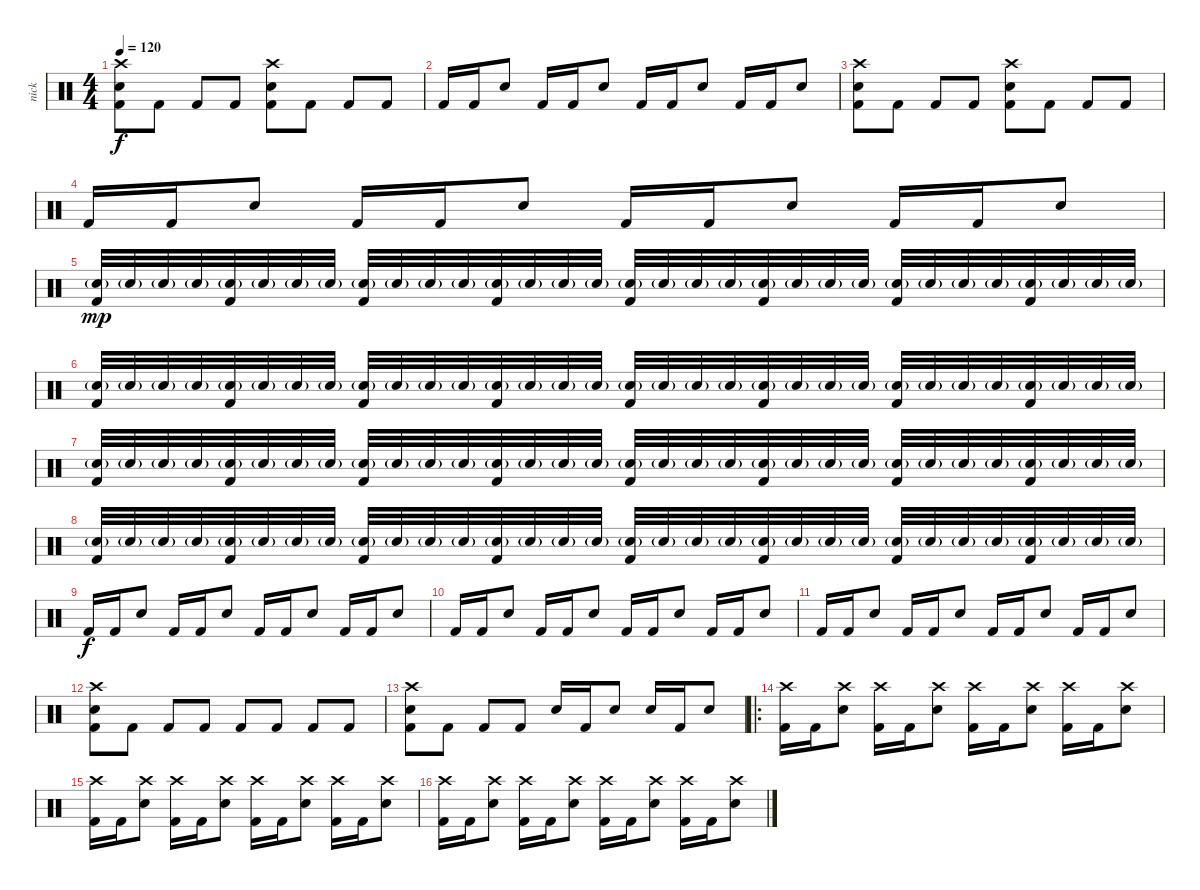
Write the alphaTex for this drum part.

\track ("nick" "nick") {instrument percussion}
\staff {score}
\articulation defaults
\ts (4 4)
\tempo 120
\clef neutral
\ks c
("Kick (hit) 2" "Snare (hit) 2" "Crash high (hit)").8{dy f} "Kick (hit) 2".8 "Kick (hit) 2".8 "Kick (hit) 2".8 ("Kick (hit) 2" "Snare (hit) 2" "Crash high (hit)").8 "Kick (hit) 2".8 "Kick (hit) 2".8 "Kick (hit) 2".8 |
"Kick (hit) 2".16 "Kick (hit) 2".16 "Snare (hit) 2".8 "Kick (hit) 2".16 "Kick (hit) 2".16 "Snare (hit) 2".8 "Kick (hit) 2".16 "Kick (hit) 2".16 "Snare (hit) 2".8 "Kick (hit) 2".16 "Kick (hit) 2".16 "Snare (hit) 2".8 |
("Kick (hit) 2" "Snare (hit) 2" "Crash high (hit)").8 "Kick (hit) 2".8 "Kick (hit) 2".8 "Kick (hit) 2".8 ("Kick (hit) 2" "Snare (hit) 2" "Crash high (hit)").8 "Kick (hit) 2".8 "Kick (hit) 2".8 "Kick (hit) 2".8 |
"Kick (hit) 2".16 "Kick (hit) 2".16 "Snare (hit) 2".8 "Kick (hit) 2".16 "Kick (hit) 2".16 "Snare (hit) 2".8 "Kick (hit) 2".16 "Kick (hit) 2".16 "Snare (hit) 2".8 "Kick (hit) 2".16 "Kick (hit) 2".16 "Snare (hit) 2".8 |
("Snare (hit) 2"{g} "Kick (hit) 2").32{dy mp} "Snare (hit) 2"{g}.32 "Snare (hit) 2"{g}.32 "Snare (hit) 2"{g}.32 ("Snare (hit) 2"{g} "Kick (hit) 2").32 "Snare (hit) 2"{g}.32 "Snare (hit) 2"{g}.32 "Snare (hit) 2"{g}.32 ("Snare (hit) 2"{g} "Kick (hit) 2").32 "Snare (hit) 2"{g}.32 "Snare (hit) 2"{g}.32 "Snare (hit) 2"{g}.32 ("Snare (hit) 2"{g} "Kick (hit) 2").32 "Snare (hit) 2"{g}.32 "Snare (hit) 2"{g}.32 "Snare (hit) 2"{g}.32 ("Snare (hit) 2"{g} "Kick (hit) 2").32 "Snare (hit) 2"{g}.32 "Snare (hit) 2"{g}.32 "Snare (hit) 2"{g}.32 ("Snare (hit) 2"{g} "Kick (hit) 2").32 "Snare (hit) 2"{g}.32 "Snare (hit) 2"{g}.32 "Snare (hit) 2"{g}.32 ("Snare (hit) 2"{g} "Kick (hit) 2").32 "Snare (hit) 2"{g}.32 "Snare (hit) 2"{g}.32 "Snare (hit) 2"{g}.32 ("Snare (hit) 2"{g} "Kick (hit) 2").32 "Snare (hit) 2"{g}.32 "Snare (hit) 2"{g}.32 "Snare (hit) 2"{g}.32 |
("Snare (hit) 2"{g} "Kick (hit) 2").32 "Snare (hit) 2"{g}.32 "Snare (hit) 2"{g}.32 "Snare (hit) 2"{g}.32 ("Snare (hit) 2"{g} "Kick (hit) 2").32 "Snare (hit) 2"{g}.32 "Snare (hit) 2"{g}.32 "Snare (hit) 2"{g}.32 ("Snare (hit) 2"{g} "Kick (hit) 2").32 "Snare (hit) 2"{g}.32 "Snare (hit) 2"{g}.32 "Snare (hit) 2"{g}.32 ("Snare (hit) 2"{g} "Kick (hit) 2").32 "Snare (hit) 2"{g}.32 "Snare (hit) 2"{g}.32 "Snare (hit) 2"{g}.32 ("Snare (hit) 2"{g} "Kick (hit) 2").32 "Snare (hit) 2"{g}.32 "Snare (hit) 2"{g}.32 "Snare (hit) 2"{g}.32 ("Snare (hit) 2"{g} "Kick (hit) 2").32 "Snare (hit) 2"{g}.32 "Snare (hit) 2"{g}.32 "Snare (hit) 2"{g}.32 ("Snare (hit) 2"{g} "Kick (hit) 2").32 "Snare (hit) 2"{g}.32 "Snare (hit) 2"{g}.32 "Snare (hit) 2"{g}.32 ("Snare (hit) 2"{g} "Kick (hit) 2").32 "Snare (hit) 2"{g}.32 "Snare (hit) 2"{g}.32 "Snare (hit) 2"{g}.32 |
("Snare (hit) 2"{g} "Kick (hit) 2").32 "Snare (hit) 2"{g}.32 "Snare (hit) 2"{g}.32 "Snare (hit) 2"{g}.32 ("Snare (hit) 2"{g} "Kick (hit) 2").32 "Snare (hit) 2"{g}.32 "Snare (hit) 2"{g}.32 "Snare (hit) 2"{g}.32 ("Snare (hit) 2"{g} "Kick (hit) 2").32 "Snare (hit) 2"{g}.32 "Snare (hit) 2"{g}.32 "Snare (hit) 2"{g}.32 ("Snare (hit) 2"{g} "Kick (hit) 2").32 "Snare (hit) 2"{g}.32 "Snare (hit) 2"{g}.32 "Snare (hit) 2"{g}.32 ("Snare (hit) 2"{g} "Kick (hit) 2").32 "Snare (hit) 2"{g}.32 "Snare (hit) 2"{g}.32 "Snare (hit) 2"{g}.32 ("Snare (hit) 2"{g} "Kick (hit) 2").32 "Snare (hit) 2"{g}.32 "Snare (hit) 2"{g}.32 "Snare (hit) 2"{g}.32 ("Snare (hit) 2"{g} "Kick (hit) 2").32 "Snare (hit) 2"{g}.32 "Snare (hit) 2"{g}.32 "Snare (hit) 2"{g}.32 ("Snare (hit) 2"{g} "Kick (hit) 2").32 "Snare (hit) 2"{g}.32 "Snare (hit) 2"{g}.32 "Snare (hit) 2"{g}.32 |
("Snare (hit) 2"{g} "Kick (hit) 2").32 "Snare (hit) 2"{g}.32 "Snare (hit) 2"{g}.32 "Snare (hit) 2"{g}.32 ("Snare (hit) 2"{g} "Kick (hit) 2").32 "Snare (hit) 2"{g}.32 "Snare (hit) 2"{g}.32 "Snare (hit) 2"{g}.32 ("Snare (hit) 2"{g} "Kick (hit) 2").32 "Snare (hit) 2"{g}.32 "Snare (hit) 2"{g}.32 "Snare (hit) 2"{g}.32 ("Snare (hit) 2"{g} "Kick (hit) 2").32 "Snare (hit) 2"{g}.32 "Snare (hit) 2"{g}.32 "Snare (hit) 2"{g}.32 ("Snare (hit) 2"{g} "Kick (hit) 2").32 "Snare (hit) 2"{g}.32 "Snare (hit) 2"{g}.32 "Snare (hit) 2"{g}.32 ("Snare (hit) 2"{g} "Kick (hit) 2").32 "Snare (hit) 2"{g}.32 "Snare (hit) 2"{g}.32 "Snare (hit) 2"{g}.32 ("Snare (hit) 2"{g} "Kick (hit) 2").32 "Snare (hit) 2"{g}.32 "Snare (hit) 2"{g}.32 "Snare (hit) 2"{g}.32 ("Snare (hit) 2"{g} "Kick (hit) 2").32 "Snare (hit) 2"{g}.32 "Snare (hit) 2"{g}.32 "Snare (hit) 2"{g}.32 |
"Kick (hit) 2".16{dy f} "Kick (hit) 2".16 "Snare (hit) 2".8 "Kick (hit) 2".16 "Kick (hit) 2".16 "Snare (hit) 2".8 "Kick (hit) 2".16 "Kick (hit) 2".16 "Snare (hit) 2".8 "Kick (hit) 2".16 "Kick (hit) 2".16 "Snare (hit) 2".8 |
"Kick (hit) 2".16 "Kick (hit) 2".16 "Snare (hit) 2".8 "Kick (hit) 2".16 "Kick (hit) 2".16 "Snare (hit) 2".8 "Kick (hit) 2".16 "Kick (hit) 2".16 "Snare (hit) 2".8 "Kick (hit) 2".16 "Kick (hit) 2".16 "Snare (hit) 2".8 |
"Kick (hit) 2".16 "Kick (hit) 2".16 "Snare (hit) 2".8 "Kick (hit) 2".16 "Kick (hit) 2".16 "Snare (hit) 2".8 "Kick (hit) 2".16 "Kick (hit) 2".16 "Snare (hit) 2".8 "Kick (hit) 2".16 "Kick (hit) 2".16 "Snare (hit) 2".8 |
("Kick (hit) 2" "Snare (hit) 2" "Crash high (hit)").8 "Kick (hit) 2".8 "Kick (hit) 2".8 "Kick (hit) 2".8 "Kick (hit) 2".8 "Kick (hit) 2".8 "Kick (hit) 2".8 "Kick (hit) 2".8 |
("Kick (hit) 2" "Snare (hit) 2" "Crash high (hit)").8 "Kick (hit) 2".8 "Kick (hit) 2".8 "Kick (hit) 2".8 "Snare (hit) 2".16 "Kick (hit) 2".16 "Snare (hit) 2".8 "Snare (hit) 2".16 "Kick (hit) 2".16 "Snare (hit) 2".8 |
\ro
("Kick (hit) 2" "Crash high (hit)").16 "Kick (hit) 2".16 ("Snare (hit) 2" "Crash high (hit)").8 ("Kick (hit) 2" "Crash high (hit)").16 "Kick (hit) 2".16 ("Snare (hit) 2" "Crash high (hit)").8 ("Kick (hit) 2" "Crash high (hit)").16 "Kick (hit) 2".16 ("Snare (hit) 2" "Crash high (hit)").8 ("Kick (hit) 2" "Crash high (hit)").16 "Kick (hit) 2".16 ("Snare (hit) 2" "Crash high (hit)").8 |
("Kick (hit) 2" "Crash high (hit)").16 "Kick (hit) 2".16 ("Snare (hit) 2" "Crash high (hit)").8 ("Kick (hit) 2" "Crash high (hit)").16 "Kick (hit) 2".16 ("Snare (hit) 2" "Crash high (hit)").8 ("Kick (hit) 2" "Crash high (hit)").16 "Kick (hit) 2".16 ("Snare (hit) 2" "Crash high (hit)").8 ("Kick (hit) 2" "Crash high (hit)").16 "Kick (hit) 2".16 ("Snare (hit) 2" "Crash high (hit)").8 |
("Kick (hit) 2" "Crash high (hit)").16 "Kick (hit) 2".16 ("Snare (hit) 2" "Crash high (hit)").8 ("Kick (hit) 2" "Crash high (hit)").16 "Kick (hit) 2".16 ("Snare (hit) 2" "Crash high (hit)").8 ("Kick (hit) 2" "Crash high (hit)").16 "Kick (hit) 2".16 ("Snare (hit) 2" "Crash high (hit)").8 ("Kick (hit) 2" "Crash high (hit)").16 "Kick (hit) 2".16 ("Snare (hit) 2" "Crash high (hit)").8
